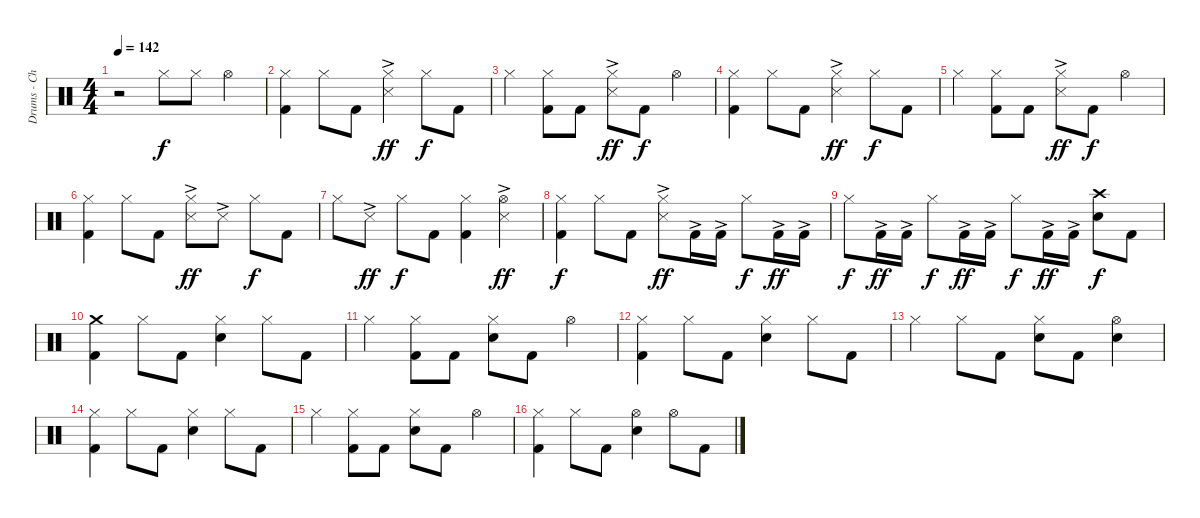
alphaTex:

\track ("Drums - Christopher Hornbrook" "Drums - Ch") {instrument percussion}
\staff {score}
\articulation defaults
\ts (4 4)
\tempo 142
\clef neutral
\ks c
r.2{dy ff} "Hi-Hat (closed)".8{dy f volume 12} "Hi-Hat (closed)".8 "Hi-Hat (open)".4 |
("Hi-Hat (closed)" "Kick (hit) 2").4 "Hi-Hat (closed)".8 "Kick (hit) 2".8 ("Hi-Hat (closed)" "Snare (side stick) 3"{ac}).4{dy ff} "Hi-Hat (closed)".8{dy f} "Kick (hit) 2".8 |
"Hi-Hat (closed)".4 ("Hi-Hat (closed)" "Kick (hit) 2").8 "Kick (hit) 2".8 ("Hi-Hat (closed)" "Snare (side stick) 3"{ac}).8{dy ff} "Kick (hit) 2".8{dy f} "Hi-Hat (open)".4 |
("Hi-Hat (closed)" "Kick (hit) 2").4 "Hi-Hat (closed)".8 "Kick (hit) 2".8 ("Hi-Hat (closed)" "Snare (side stick) 3"{ac}).4{dy ff} "Hi-Hat (closed)".8{dy f} "Kick (hit) 2".8 |
"Hi-Hat (closed)".4 ("Hi-Hat (closed)" "Kick (hit) 2").8 "Kick (hit) 2".8 ("Hi-Hat (closed)" "Snare (side stick) 3"{ac}).8{dy ff} "Kick (hit) 2".8{dy f} "Hi-Hat (open)".4 |
("Hi-Hat (closed)" "Kick (hit) 2").4 "Hi-Hat (closed)".8 "Kick (hit) 2".8 ("Hi-Hat (closed)" "Snare (side stick) 3"{ac}).8{dy ff} "Snare (side stick) 3"{ac}.8 "Hi-Hat (closed)".8{dy f} "Kick (hit) 2".8 |
"Hi-Hat (closed)".8 "Snare (side stick) 3"{ac}.8{dy ff} "Hi-Hat (closed)".8{dy f} "Kick (hit) 2".8 ("Hi-Hat (closed)" "Kick (hit) 2").4 ("Hi-Hat (open)" "Snare (side stick) 3"{ac}).4{dy ff} |
("Hi-Hat (closed)" "Kick (hit) 2").4{dy f} "Hi-Hat (closed)".8 "Kick (hit) 2".8 ("Hi-Hat (closed)" "Snare (side stick) 3"{ac}).8{dy ff} "Kick (hit) 2"{ac}.16 "Kick (hit) 2"{ac}.16 "Hi-Hat (closed)".8{dy f} "Kick (hit) 2"{ac}.16{dy ff} "Kick (hit) 2"{ac}.16 |
"Hi-Hat (closed)".8{dy f} "Kick (hit) 2"{ac}.16{dy ff} "Kick (hit) 2"{ac}.16 "Hi-Hat (closed)".8{dy f} "Kick (hit) 2"{ac}.16{dy ff} "Kick (hit) 2"{ac}.16 "Hi-Hat (closed)".8{dy f} "Kick (hit) 2"{ac}.16{dy ff} "Kick (hit) 2"{ac}.16 ("Crash high (hit)" "Electric Snare (hit)").8{dy f volume 13} "Kick (hit) 2".8 |
("Crash medium (hit)" "Kick (hit) 2").4 "Hi-Hat (closed)".8 "Kick (hit) 2".8 ("Hi-Hat (closed)" "Electric Snare (hit)").4 "Hi-Hat (closed)".8 "Kick (hit) 2".8 |
"Hi-Hat (closed)".4 ("Hi-Hat (closed)" "Kick (hit) 2").8 "Kick (hit) 2".8 ("Hi-Hat (closed)" "Electric Snare (hit)").8 "Kick (hit) 2".8 "Hi-Hat (open)".4 |
("Hi-Hat (closed)" "Kick (hit) 2").4 "Hi-Hat (closed)".8 "Kick (hit) 2".8 ("Hi-Hat (closed)" "Electric Snare (hit)").4 "Hi-Hat (closed)".8 "Kick (hit) 2".8 |
"Hi-Hat (closed)".4 "Hi-Hat (closed)".8 "Kick (hit) 2".8 ("Hi-Hat (closed)" "Electric Snare (hit)").8 "Kick (hit) 2".8 ("Hi-Hat (open)" "Electric Snare (hit)").4 |
("Hi-Hat (closed)" "Kick (hit) 2").4 "Hi-Hat (closed)".8 "Kick (hit) 2".8 ("Hi-Hat (closed)" "Electric Snare (hit)").4 "Hi-Hat (closed)".8 "Kick (hit) 2".8 |
"Hi-Hat (closed)".4 ("Hi-Hat (closed)" "Kick (hit) 2").8 "Kick (hit) 2".8 ("Hi-Hat (closed)" "Electric Snare (hit)").8 "Kick (hit) 2".8 "Hi-Hat (open)".4 |
("Hi-Hat (closed)" "Kick (hit) 2").4 "Hi-Hat (closed)".8 "Kick (hit) 2".8 ("Hi-Hat (open)" "Electric Snare (hit)").4 "Hi-Hat (open)".8 "Kick (hit) 2".8
